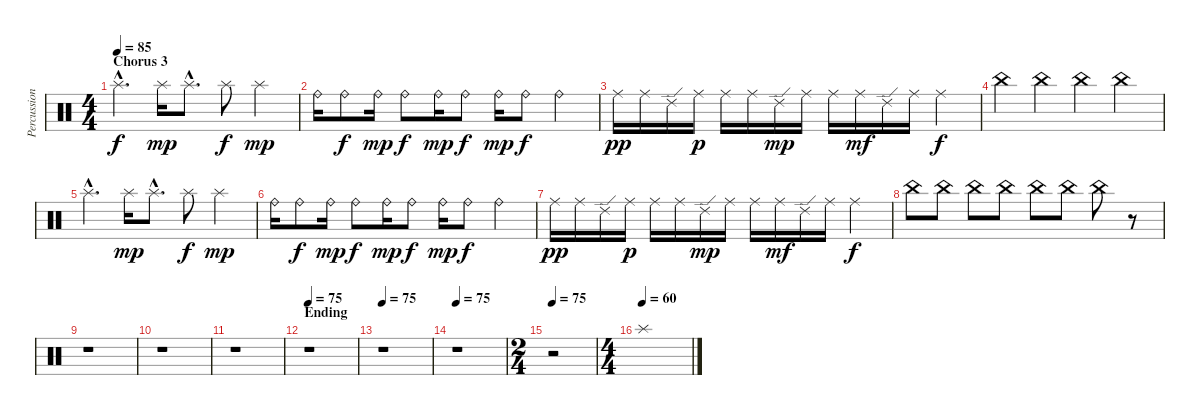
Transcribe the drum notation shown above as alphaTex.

\track ("Percussion" "Percussion") {instrument percussion}
\staff {score}
\articulation defaults
\ts (4 4)
\section ("" "Chorus 3")
\tempo 85
\clef neutral
\ks c "Splash (hit)"{hac}.4{d dy f} "Splash (hit)".16{dy mp} "Splash (hit)"{hac}.8{d} "Splash (hit)".8{dy f} "Splash (hit)".4{dy mp}
|
"Ride (bell)".16 "Ride (bell)".8{dy f} "Ride (bell)".16{dy mp} "Ride (bell)".8{dy f} "Ride (bell)".16{dy mp} "Ride (bell)".8{dy f} "Ride (bell)".16{dy mp} "Ride (bell)".8{dy f} "Ride (bell)".4 |
"Ride (middle)".16{dy pp} "Ride (middle)".16 "Ride (edge) 2".16 "Ride (middle)".16{dy p} "Ride (middle)".16 "Ride (middle)".16 "Ride (edge) 2".16{dy mp} "Ride (middle)".16 "Ride (middle)".16 "Ride (middle)".16{dy mf} "Ride (edge) 2".16 "Ride (middle)".16 "Ride (middle)".4{dy f} |
"China (hit)".4 "China (hit)".4 "China (hit)".4 "China (hit)".4 |
"Splash (hit)"{hac}.4{d} "Splash (hit)".16{dy mp} "Splash (hit)"{hac}.8{d} "Splash (hit)".8{dy f} "Splash (hit)".4{dy mp} |
"Ride (bell)".16 "Ride (bell)".8{dy f} "Ride (bell)".16{dy mp} "Ride (bell)".8{dy f} "Ride (bell)".16{dy mp} "Ride (bell)".8{dy f} "Ride (bell)".16{dy mp} "Ride (bell)".8{dy f} "Ride (bell)".4 |
"Ride (middle)".16{dy pp} "Ride (middle)".16 "Ride (edge) 2".16 "Ride (middle)".16{dy p} "Ride (middle)".16 "Ride (middle)".16 "Ride (edge) 2".16{dy mp} "Ride (middle)".16 "Ride (middle)".16 "Ride (middle)".16{dy mf} "Ride (edge) 2".16 "Ride (middle)".16 "Ride (middle)".4{dy f} |
"China (hit)".8 "China (hit)".8 "China (hit)".8 "China (hit)".8 "China (hit)".8 "China (hit)".8 "China (hit)".8 r.8 |
r.1 |
r.1 |
r.1 |
\section ("" "Ending")
\tempo 75
r.1 |
\tempo 75
r.1 |
\tempo 75
r.1 |
\ts (2 4)
\tempo 75
r.2 |
\ts (4 4)
\tempo (60)
"Splash (hit)".1
